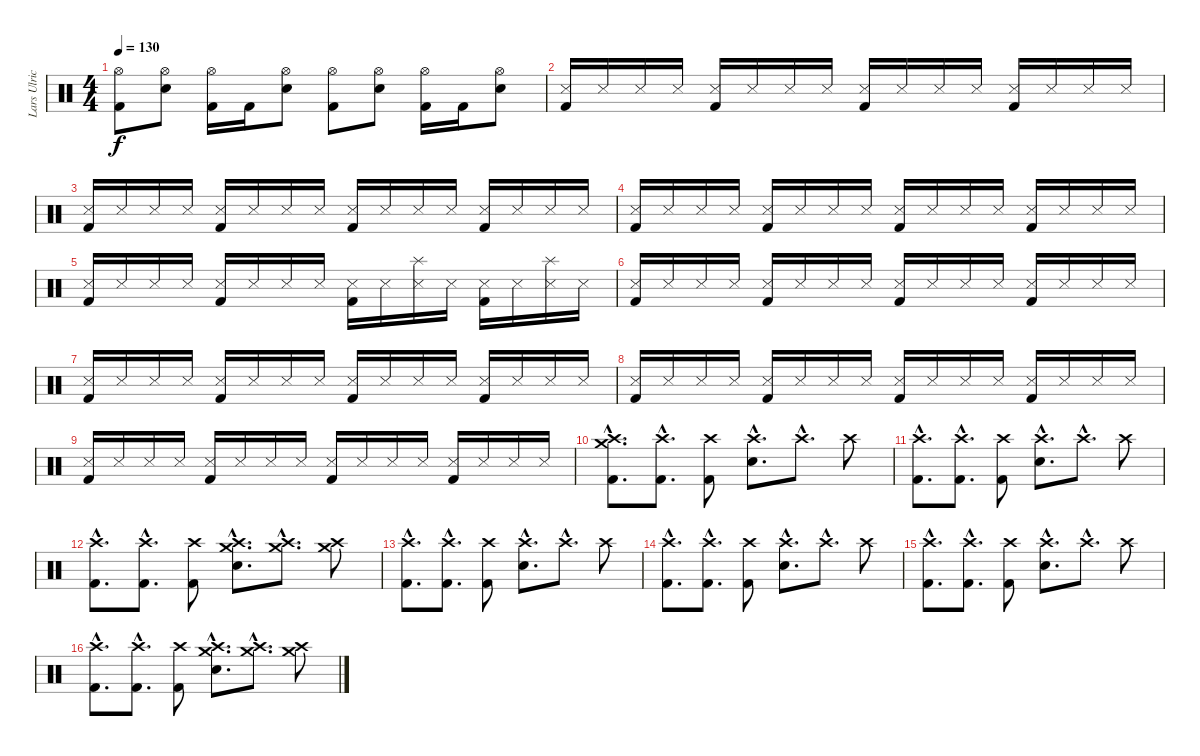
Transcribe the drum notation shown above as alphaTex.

\track ("Lars Ulrich" "Lars Ulric") {instrument percussion}
\staff {score}
\articulation defaults
\ts (4 4)
\tempo 130
\clef neutral
\ks c
("Hi-Hat (open)" "Kick (hit) 2").8{dy f} ("Hi-Hat (open)" "Electric Snare (hit)").8 ("Hi-Hat (open)" "Kick (hit) 2").16 "Kick (hit) 2".16 ("Hi-Hat (open)" "Electric Snare (hit)").8 ("Hi-Hat (open)" "Kick (hit) 2").8 ("Hi-Hat (open)" "Electric Snare (hit)").8 ("Hi-Hat (open)" "Kick (hit) 2").16 "Kick (hit) 2".16 ("Hi-Hat (open)" "Electric Snare (hit)").8 |
("Metronome (hit)" "Kick (hit) 2").16 "Snare (side stick) 3".16 "Snare (side stick) 3".16 "Snare (side stick) 3".16 ("Metronome (hit)" "Kick (hit) 2").16 "Snare (side stick) 3".16 "Snare (side stick) 3".16 "Snare (side stick) 3".16 ("Metronome (hit)" "Kick (hit) 2").16 "Snare (side stick) 3".16 "Snare (side stick) 3".16 "Snare (side stick) 3".16 ("Metronome (hit)" "Kick (hit) 2").16 "Snare (side stick) 3".16 "Snare (side stick) 3".16 "Snare (side stick) 3".16 |
("Metronome (hit)" "Kick (hit) 2").16 "Snare (side stick) 3".16 "Snare (side stick) 3".16 "Snare (side stick) 3".16 ("Metronome (hit)" "Kick (hit) 2").16 "Snare (side stick) 3".16 "Snare (side stick) 3".16 "Snare (side stick) 3".16 ("Metronome (hit)" "Kick (hit) 2").16 "Snare (side stick) 3".16 "Snare (side stick) 3".16 "Snare (side stick) 3".16 ("Metronome (hit)" "Kick (hit) 2").16 "Snare (side stick) 3".16 "Snare (side stick) 3".16 "Snare (side stick) 3".16 |
("Metronome (hit)" "Kick (hit) 2").16 "Snare (side stick) 3".16 "Snare (side stick) 3".16 "Snare (side stick) 3".16 ("Metronome (hit)" "Kick (hit) 2").16 "Snare (side stick) 3".16 "Snare (side stick) 3".16 "Snare (side stick) 3".16 ("Metronome (hit)" "Kick (hit) 2").16 "Snare (side stick) 3".16 "Snare (side stick) 3".16 "Snare (side stick) 3".16 ("Metronome (hit)" "Kick (hit) 2").16 "Snare (side stick) 3".16 "Snare (side stick) 3".16 "Snare (side stick) 3".16 |
("Metronome (hit)" "Kick (hit) 2").16 "Snare (side stick) 3".16 "Snare (side stick) 3".16 "Snare (side stick) 3".16 ("Metronome (hit)" "Kick (hit) 2").16 "Snare (side stick) 3".16 "Snare (side stick) 3".16 "Snare (side stick) 3".16 ("Metronome (hit)" "Kick (hit) 2").16 "Snare (side stick) 3".16 ("Splash (hit)" "Snare (side stick) 3").16 "Snare (side stick) 3".16 ("Metronome (hit)" "Kick (hit) 2").16 "Snare (side stick) 3".16 ("Splash (hit)" "Snare (side stick) 3").16 "Snare (side stick) 3".16 |
("Metronome (hit)" "Kick (hit) 2").16 "Snare (side stick) 3".16 "Snare (side stick) 3".16 "Snare (side stick) 3".16 ("Metronome (hit)" "Kick (hit) 2").16 "Snare (side stick) 3".16 "Snare (side stick) 3".16 "Snare (side stick) 3".16 ("Metronome (hit)" "Kick (hit) 2").16 "Snare (side stick) 3".16 "Snare (side stick) 3".16 "Snare (side stick) 3".16 ("Metronome (hit)" "Kick (hit) 2").16 "Snare (side stick) 3".16 "Snare (side stick) 3".16 "Snare (side stick) 3".16 |
("Metronome (hit)" "Kick (hit) 2").16 "Snare (side stick) 3".16 "Snare (side stick) 3".16 "Snare (side stick) 3".16 ("Metronome (hit)" "Kick (hit) 2").16 "Snare (side stick) 3".16 "Snare (side stick) 3".16 "Snare (side stick) 3".16 ("Metronome (hit)" "Kick (hit) 2").16 "Snare (side stick) 3".16 "Snare (side stick) 3".16 "Snare (side stick) 3".16 ("Metronome (hit)" "Kick (hit) 2").16 "Snare (side stick) 3".16 "Snare (side stick) 3".16 "Snare (side stick) 3".16 |
("Metronome (hit)" "Kick (hit) 2").16 "Snare (side stick) 3".16 "Snare (side stick) 3".16 "Snare (side stick) 3".16 ("Metronome (hit)" "Kick (hit) 2").16 "Snare (side stick) 3".16 "Snare (side stick) 3".16 "Snare (side stick) 3".16 ("Metronome (hit)" "Kick (hit) 2").16 "Snare (side stick) 3".16 "Snare (side stick) 3".16 "Snare (side stick) 3".16 ("Metronome (hit)" "Kick (hit) 2").16 "Snare (side stick) 3".16 "Snare (side stick) 3".16 "Snare (side stick) 3".16 |
("Metronome (hit)" "Kick (hit) 2").16 "Snare (side stick) 3".16 "Snare (side stick) 3".16 "Snare (side stick) 3".16 ("Metronome (hit)" "Kick (hit) 2").16 "Snare (side stick) 3".16 "Snare (side stick) 3".16 "Snare (side stick) 3".16 ("Metronome (hit)" "Kick (hit) 2").16 "Snare (side stick) 3".16 "Snare (side stick) 3".16 "Snare (side stick) 3".16 ("Metronome (hit)" "Kick (hit) 2").16 "Snare (side stick) 3".16 "Snare (side stick) 3".16 "Snare (side stick) 3".16 |
("Crash medium (hit)"{hac} "Crash high (hit)"{hac} "Kick (hit) 2"{hac}).8{d} ("Crash high (hit)"{hac} "Kick (hit) 2"{hac}).8{d} ("Crash high (hit)" "Kick (hit) 2").8 ("Crash high (hit)"{hac} "Electric Snare (hit)"{hac}).8{d} "Crash high (hit)"{hac}.8{d} "Crash high (hit)".8 |
("Crash high (hit)"{hac} "Kick (hit) 2"{hac}).8{d} ("Crash high (hit)"{hac} "Kick (hit) 2"{hac}).8{d} ("Crash high (hit)" "Kick (hit) 2").8 ("Crash high (hit)"{hac} "Electric Snare (hit)"{hac}).8{d} "Crash high (hit)"{hac}.8{d} "Crash high (hit)".8 |
("Crash high (hit)"{hac} "Kick (hit) 2"{hac}).8{d} ("Crash high (hit)"{hac} "Kick (hit) 2"{hac}).8{d} ("Crash high (hit)" "Kick (hit) 2").8 ("Crash medium (hit)"{hac} "Crash high (hit)"{hac} "Electric Snare (hit)"{hac}).8{d} ("Crash medium (hit)"{hac} "Crash high (hit)"{hac}).8{d} ("Crash medium (hit)" "Crash high (hit)").8 |
("Crash high (hit)"{hac} "Kick (hit) 2"{hac}).8{d} ("Crash high (hit)"{hac} "Kick (hit) 2"{hac}).8{d} ("Crash high (hit)" "Kick (hit) 2").8 ("Crash high (hit)"{hac} "Electric Snare (hit)"{hac}).8{d} "Crash high (hit)"{hac}.8{d} "Crash high (hit)".8 |
("Crash high (hit)"{hac} "Kick (hit) 2"{hac}).8{d} ("Crash high (hit)"{hac} "Kick (hit) 2"{hac}).8{d} ("Crash high (hit)" "Kick (hit) 2").8 ("Crash high (hit)"{hac} "Electric Snare (hit)"{hac}).8{d} "Crash high (hit)"{hac}.8{d} "Crash high (hit)".8 |
("Crash high (hit)"{hac} "Kick (hit) 2"{hac}).8{d} ("Crash high (hit)"{hac} "Kick (hit) 2"{hac}).8{d} ("Crash high (hit)" "Kick (hit) 2").8 ("Crash high (hit)"{hac} "Electric Snare (hit)"{hac}).8{d} "Crash high (hit)"{hac}.8{d} "Crash high (hit)".8 |
("Crash high (hit)"{hac} "Kick (hit) 2"{hac}).8{d} ("Crash high (hit)"{hac} "Kick (hit) 2"{hac}).8{d} ("Crash high (hit)" "Kick (hit) 2").8 ("Crash medium (hit)"{hac} "Crash high (hit)"{hac} "Electric Snare (hit)"{hac}).8{d} ("Crash medium (hit)"{hac} "Crash high (hit)"{hac}).8{d} ("Crash medium (hit)" "Crash high (hit)").8
